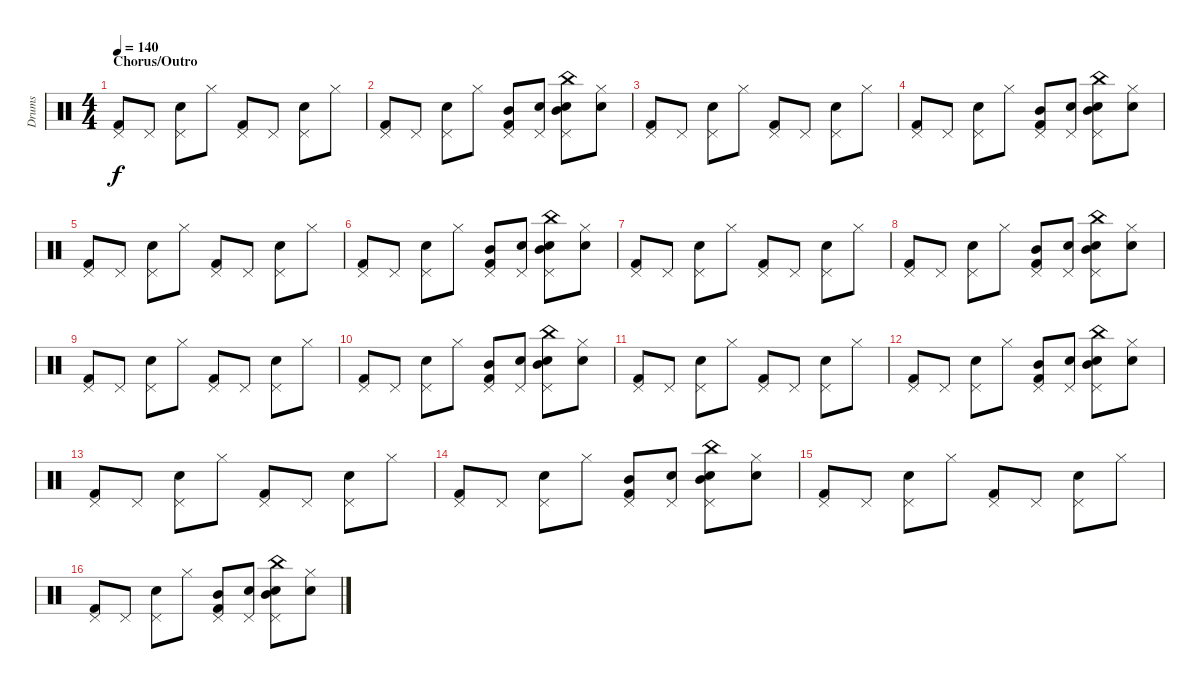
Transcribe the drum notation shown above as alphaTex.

\track ("Drums" "Drums") {instrument percussion}
\staff {score}
\articulation defaults
\ts (4 4)
\section ("" "Chorus/Outro")
\tempo 140
\clef neutral
\ks c
("Kick (hit) 2" "Pedal Hi-Hat (hit)").8{dy f} "Pedal Hi-Hat (hit)".8 ("Snare (hit) 2" "Pedal Hi-Hat (hit)").8 "Hi-Hat (closed)".8 ("Kick (hit) 2" "Pedal Hi-Hat (hit)").8 "Pedal Hi-Hat (hit)".8 ("Snare (hit) 2" "Pedal Hi-Hat (hit)").8 "Hi-Hat (closed)".8 |
("Kick (hit) 2" "Pedal Hi-Hat (hit)").8 "Pedal Hi-Hat (hit)".8 ("Snare (hit) 2" "Pedal Hi-Hat (hit)").8 "Hi-Hat (closed)".8 ("Kick (hit) 2" "Mid Tom (hit)" "Pedal Hi-Hat (hit)").8 ("Hand Clap (hit)" "Pedal Hi-Hat (hit)").8 ("Snare (hit) 2" "China (hit)" "Mid Tom (hit)" "Pedal Hi-Hat (hit)").8 ("Hand Clap (hit)" "Hi-Hat (closed)").8 |
("Kick (hit) 2" "Pedal Hi-Hat (hit)").8 "Pedal Hi-Hat (hit)".8 ("Snare (hit) 2" "Pedal Hi-Hat (hit)").8 "Hi-Hat (closed)".8 ("Kick (hit) 2" "Pedal Hi-Hat (hit)").8 "Pedal Hi-Hat (hit)".8 ("Snare (hit) 2" "Pedal Hi-Hat (hit)").8 "Hi-Hat (closed)".8 |
("Kick (hit) 2" "Pedal Hi-Hat (hit)").8 "Pedal Hi-Hat (hit)".8 ("Snare (hit) 2" "Pedal Hi-Hat (hit)").8 "Hi-Hat (closed)".8 ("Kick (hit) 2" "Mid Tom (hit)" "Pedal Hi-Hat (hit)").8 ("Hand Clap (hit)" "Pedal Hi-Hat (hit)").8 ("Snare (hit) 2" "China (hit)" "Mid Tom (hit)" "Pedal Hi-Hat (hit)").8 ("Hand Clap (hit)" "Hi-Hat (closed)").8 |
("Kick (hit) 2" "Pedal Hi-Hat (hit)").8 "Pedal Hi-Hat (hit)".8 ("Snare (hit) 2" "Pedal Hi-Hat (hit)").8 "Hi-Hat (closed)".8 ("Kick (hit) 2" "Pedal Hi-Hat (hit)").8 "Pedal Hi-Hat (hit)".8 ("Snare (hit) 2" "Pedal Hi-Hat (hit)").8 "Hi-Hat (closed)".8 |
("Kick (hit) 2" "Pedal Hi-Hat (hit)").8 "Pedal Hi-Hat (hit)".8 ("Snare (hit) 2" "Pedal Hi-Hat (hit)").8 "Hi-Hat (closed)".8 ("Kick (hit) 2" "Mid Tom (hit)" "Pedal Hi-Hat (hit)").8 ("Hand Clap (hit)" "Pedal Hi-Hat (hit)").8 ("Snare (hit) 2" "China (hit)" "Mid Tom (hit)" "Pedal Hi-Hat (hit)").8 ("Hand Clap (hit)" "Hi-Hat (closed)").8 |
("Kick (hit) 2" "Pedal Hi-Hat (hit)").8 "Pedal Hi-Hat (hit)".8 ("Snare (hit) 2" "Pedal Hi-Hat (hit)").8 "Hi-Hat (closed)".8 ("Kick (hit) 2" "Pedal Hi-Hat (hit)").8 "Pedal Hi-Hat (hit)".8 ("Snare (hit) 2" "Pedal Hi-Hat (hit)").8 "Hi-Hat (closed)".8 |
("Kick (hit) 2" "Pedal Hi-Hat (hit)").8 "Pedal Hi-Hat (hit)".8 ("Snare (hit) 2" "Pedal Hi-Hat (hit)").8 "Hi-Hat (closed)".8 ("Kick (hit) 2" "Mid Tom (hit)" "Pedal Hi-Hat (hit)").8 ("Hand Clap (hit)" "Pedal Hi-Hat (hit)").8 ("Snare (hit) 2" "China (hit)" "Mid Tom (hit)" "Pedal Hi-Hat (hit)").8 ("Hand Clap (hit)" "Hi-Hat (closed)").8 |
("Kick (hit) 2" "Pedal Hi-Hat (hit)").8 "Pedal Hi-Hat (hit)".8 ("Snare (hit) 2" "Pedal Hi-Hat (hit)").8 "Hi-Hat (closed)".8 ("Kick (hit) 2" "Pedal Hi-Hat (hit)").8 "Pedal Hi-Hat (hit)".8 ("Snare (hit) 2" "Pedal Hi-Hat (hit)").8 "Hi-Hat (closed)".8 |
("Kick (hit) 2" "Pedal Hi-Hat (hit)").8 "Pedal Hi-Hat (hit)".8 ("Snare (hit) 2" "Pedal Hi-Hat (hit)").8 "Hi-Hat (closed)".8 ("Kick (hit) 2" "Mid Tom (hit)" "Pedal Hi-Hat (hit)").8 ("Hand Clap (hit)" "Pedal Hi-Hat (hit)").8 ("Snare (hit) 2" "China (hit)" "Mid Tom (hit)" "Pedal Hi-Hat (hit)").8 ("Hand Clap (hit)" "Hi-Hat (closed)").8 |
("Kick (hit) 2" "Pedal Hi-Hat (hit)").8 "Pedal Hi-Hat (hit)".8 ("Snare (hit) 2" "Pedal Hi-Hat (hit)").8 "Hi-Hat (closed)".8 ("Kick (hit) 2" "Pedal Hi-Hat (hit)").8 "Pedal Hi-Hat (hit)".8 ("Snare (hit) 2" "Pedal Hi-Hat (hit)").8 "Hi-Hat (closed)".8 |
("Kick (hit) 2" "Pedal Hi-Hat (hit)").8 "Pedal Hi-Hat (hit)".8 ("Snare (hit) 2" "Pedal Hi-Hat (hit)").8 "Hi-Hat (closed)".8 ("Kick (hit) 2" "Mid Tom (hit)" "Pedal Hi-Hat (hit)").8 ("Hand Clap (hit)" "Pedal Hi-Hat (hit)").8 ("Snare (hit) 2" "China (hit)" "Mid Tom (hit)" "Pedal Hi-Hat (hit)").8 ("Hand Clap (hit)" "Hi-Hat (closed)").8 |
("Kick (hit) 2" "Pedal Hi-Hat (hit)").8 "Pedal Hi-Hat (hit)".8 ("Snare (hit) 2" "Pedal Hi-Hat (hit)").8 "Hi-Hat (closed)".8 ("Kick (hit) 2" "Pedal Hi-Hat (hit)").8 "Pedal Hi-Hat (hit)".8 ("Snare (hit) 2" "Pedal Hi-Hat (hit)").8 "Hi-Hat (closed)".8 |
("Kick (hit) 2" "Pedal Hi-Hat (hit)").8 "Pedal Hi-Hat (hit)".8 ("Snare (hit) 2" "Pedal Hi-Hat (hit)").8 "Hi-Hat (closed)".8 ("Kick (hit) 2" "Mid Tom (hit)" "Pedal Hi-Hat (hit)").8 ("Hand Clap (hit)" "Pedal Hi-Hat (hit)").8 ("Snare (hit) 2" "China (hit)" "Mid Tom (hit)" "Pedal Hi-Hat (hit)").8 ("Hand Clap (hit)" "Hi-Hat (closed)").8 |
("Kick (hit) 2" "Pedal Hi-Hat (hit)").8 "Pedal Hi-Hat (hit)".8 ("Snare (hit) 2" "Pedal Hi-Hat (hit)").8 "Hi-Hat (closed)".8 ("Kick (hit) 2" "Pedal Hi-Hat (hit)").8 "Pedal Hi-Hat (hit)".8 ("Snare (hit) 2" "Pedal Hi-Hat (hit)").8 "Hi-Hat (closed)".8 |
("Kick (hit) 2" "Pedal Hi-Hat (hit)").8 "Pedal Hi-Hat (hit)".8 ("Snare (hit) 2" "Pedal Hi-Hat (hit)").8 "Hi-Hat (closed)".8 ("Kick (hit) 2" "Mid Tom (hit)" "Pedal Hi-Hat (hit)").8 ("Hand Clap (hit)" "Pedal Hi-Hat (hit)").8 ("Snare (hit) 2" "China (hit)" "Mid Tom (hit)" "Pedal Hi-Hat (hit)").8 ("Hand Clap (hit)" "Hi-Hat (closed)").8
